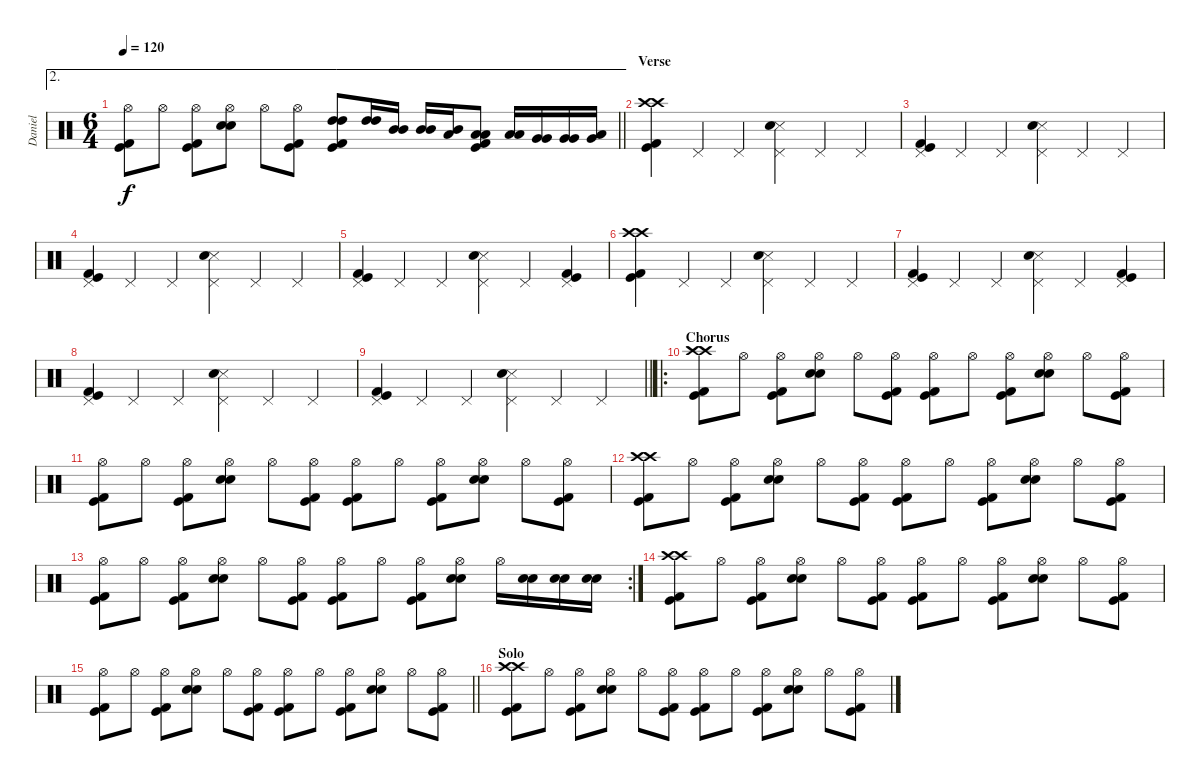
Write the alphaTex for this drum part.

\track ("Daniel" "Daniel") {instrument percussion}
\staff {score}
\articulation defaults
\ae 2
\ts (6 4)
\tempo 120
\clef neutral
\barLineRight lightlight
\ks c
("Hi-Hat (open)" "Kick (hit) 2" "Kick (hit)").8{dy f} "Hi-Hat (open)".8 ("Hi-Hat (open)" "Kick (hit) 2" "Kick (hit)").8 ("Hi-Hat (open)" "Snare (hit) 2" "Electric Snare (hit)").8 "Hi-Hat (open)".8 ("Hi-Hat (open)" "Kick (hit) 2" "Kick (hit)").8 ("High Tom (hit)" "High Tom (hit)" "Kick (hit) 2" "Kick (hit)").8 ("High Tom (hit)" "High Tom (hit)").16 ("Mid Tom (hit)" "Mid Tom (hit)").16 ("Mid Tom (hit)" "Mid Tom (hit)").16 ("Mid Tom (hit)" "Low Tom (hit)").16 ("Low Tom (hit)" "Low Tom (hit)" "Kick (hit) 2" "Kick (hit)").8 ("Low Tom (hit)" "Low Tom (hit)").16 ("Very Low Tom (hit)" "Very Low Tom (hit)").16 ("Very Low Tom (hit)" "Very Low Tom (hit)").16 ("Very Low Tom (hit)" "Low Floor Tom (hit)").16 |
\section ("" "Verse")
("Crash high (hit)" "Crash high (hit)" "Kick (hit) 2" "Kick (hit)").4 "Pedal Hi-Hat (hit)".4 "Pedal Hi-Hat (hit)".4 ("Pedal Hi-Hat (hit)" "Snare (side stick) 3" "Electric Snare (hit)").4 "Pedal Hi-Hat (hit)".4 "Pedal Hi-Hat (hit)".4 |
("Pedal Hi-Hat (hit)" "Kick (hit) 2" "Kick (hit)").4 "Pedal Hi-Hat (hit)".4 "Pedal Hi-Hat (hit)".4 ("Pedal Hi-Hat (hit)" "Snare (side stick) 3" "Electric Snare (hit)").4 "Pedal Hi-Hat (hit)".4 "Pedal Hi-Hat (hit)".4 |
("Pedal Hi-Hat (hit)" "Kick (hit) 2" "Kick (hit)").4 "Pedal Hi-Hat (hit)".4 "Pedal Hi-Hat (hit)".4 ("Pedal Hi-Hat (hit)" "Snare (side stick) 3" "Electric Snare (hit)").4 "Pedal Hi-Hat (hit)".4 "Pedal Hi-Hat (hit)".4 |
("Pedal Hi-Hat (hit)" "Kick (hit) 2" "Kick (hit)").4 "Pedal Hi-Hat (hit)".4 "Pedal Hi-Hat (hit)".4 ("Pedal Hi-Hat (hit)" "Snare (side stick) 3" "Electric Snare (hit)").4 "Pedal Hi-Hat (hit)".4 ("Pedal Hi-Hat (hit)" "Kick (hit) 2" "Kick (hit)").4 |
("Crash high (hit)" "Crash high (hit)" "Kick (hit) 2" "Kick (hit)").4 "Pedal Hi-Hat (hit)".4 "Pedal Hi-Hat (hit)".4 ("Pedal Hi-Hat (hit)" "Snare (side stick) 3" "Electric Snare (hit)").4 "Pedal Hi-Hat (hit)".4 "Pedal Hi-Hat (hit)".4 |
("Pedal Hi-Hat (hit)" "Kick (hit) 2" "Kick (hit)").4 "Pedal Hi-Hat (hit)".4 "Pedal Hi-Hat (hit)".4 ("Pedal Hi-Hat (hit)" "Snare (side stick) 3" "Electric Snare (hit)").4 "Pedal Hi-Hat (hit)".4 ("Pedal Hi-Hat (hit)" "Kick (hit) 2" "Kick (hit)").4 |
("Pedal Hi-Hat (hit)" "Kick (hit) 2" "Kick (hit)").4 "Pedal Hi-Hat (hit)".4 "Pedal Hi-Hat (hit)".4 ("Pedal Hi-Hat (hit)" "Snare (side stick) 3" "Electric Snare (hit)").4 "Pedal Hi-Hat (hit)".4 "Pedal Hi-Hat (hit)".4 |
\barLineRight lightlight
("Pedal Hi-Hat (hit)" "Kick (hit) 2" "Kick (hit)").4 "Pedal Hi-Hat (hit)".4 "Pedal Hi-Hat (hit)".4 ("Pedal Hi-Hat (hit)" "Snare (side stick) 3" "Electric Snare (hit)").4 "Pedal Hi-Hat (hit)".4 "Pedal Hi-Hat (hit)".4 |
\ro
\section ("" "Chorus")
("Crash high (hit)" "Crash high (hit)" "Kick (hit) 2" "Kick (hit)").8 "Hi-Hat (open)".8 ("Hi-Hat (open)" "Kick (hit) 2" "Kick (hit)").8 ("Hi-Hat (open)" "Snare (hit) 2" "Electric Snare (hit)").8 "Hi-Hat (open)".8 ("Hi-Hat (open)" "Kick (hit) 2" "Kick (hit)").8 ("Hi-Hat (open)" "Kick (hit) 2" "Kick (hit)").8 "Hi-Hat (open)".8 ("Hi-Hat (open)" "Kick (hit) 2" "Kick (hit)").8 ("Hi-Hat (open)" "Snare (hit) 2" "Electric Snare (hit)").8 "Hi-Hat (open)".8 ("Hi-Hat (open)" "Kick (hit) 2" "Kick (hit)").8 |
("Hi-Hat (open)" "Kick (hit) 2" "Kick (hit)").8 "Hi-Hat (open)".8 ("Hi-Hat (open)" "Kick (hit) 2" "Kick (hit)").8 ("Hi-Hat (open)" "Snare (hit) 2" "Electric Snare (hit)").8 "Hi-Hat (open)".8 ("Hi-Hat (open)" "Kick (hit) 2" "Kick (hit)").8 ("Hi-Hat (open)" "Kick (hit) 2" "Kick (hit)").8 "Hi-Hat (open)".8 ("Hi-Hat (open)" "Kick (hit) 2" "Kick (hit)").8 ("Hi-Hat (open)" "Snare (hit) 2" "Electric Snare (hit)").8 "Hi-Hat (open)".8 ("Hi-Hat (open)" "Kick (hit) 2" "Kick (hit)").8 |
("Crash high (hit)" "Crash high (hit)" "Kick (hit) 2" "Kick (hit)").8 "Hi-Hat (open)".8 ("Hi-Hat (open)" "Kick (hit) 2" "Kick (hit)").8 ("Hi-Hat (open)" "Snare (hit) 2" "Electric Snare (hit)").8 "Hi-Hat (open)".8 ("Hi-Hat (open)" "Kick (hit) 2" "Kick (hit)").8 ("Hi-Hat (open)" "Kick (hit) 2" "Kick (hit)").8 "Hi-Hat (open)".8 ("Hi-Hat (open)" "Kick (hit) 2" "Kick (hit)").8 ("Hi-Hat (open)" "Snare (hit) 2" "Electric Snare (hit)").8 "Hi-Hat (open)".8 ("Hi-Hat (open)" "Kick (hit) 2" "Kick (hit)").8 |
\rc 2
("Hi-Hat (open)" "Kick (hit) 2" "Kick (hit)").8 "Hi-Hat (open)".8 ("Hi-Hat (open)" "Kick (hit) 2" "Kick (hit)").8 ("Hi-Hat (open)" "Snare (hit) 2" "Electric Snare (hit)").8 "Hi-Hat (open)".8 ("Hi-Hat (open)" "Kick (hit) 2" "Kick (hit)").8 ("Hi-Hat (open)" "Kick (hit) 2" "Kick (hit)").8 "Hi-Hat (open)".8 ("Hi-Hat (open)" "Kick (hit) 2" "Kick (hit)").8 ("Hi-Hat (open)" "Snare (hit) 2" "Electric Snare (hit)").8 "Hi-Hat (open)".16 ("Snare (hit) 2" "Electric Snare (hit)").16 ("Snare (hit) 2" "Electric Snare (hit)").16 ("Snare (hit) 2" "Electric Snare (hit)").16 |
("Crash high (hit)" "Crash high (hit)" "Kick (hit) 2" "Kick (hit)").8 "Hi-Hat (open)".8 ("Hi-Hat (open)" "Kick (hit) 2" "Kick (hit)").8 ("Hi-Hat (open)" "Snare (hit) 2" "Electric Snare (hit)").8 "Hi-Hat (open)".8 ("Hi-Hat (open)" "Kick (hit) 2" "Kick (hit)").8 ("Hi-Hat (open)" "Kick (hit) 2" "Kick (hit)").8 "Hi-Hat (open)".8 ("Hi-Hat (open)" "Kick (hit) 2" "Kick (hit)").8 ("Hi-Hat (open)" "Snare (hit) 2" "Electric Snare (hit)").8 "Hi-Hat (open)".8 ("Hi-Hat (open)" "Kick (hit) 2" "Kick (hit)").8 |
\barLineRight lightlight
("Hi-Hat (open)" "Kick (hit) 2" "Kick (hit)").8 "Hi-Hat (open)".8 ("Hi-Hat (open)" "Kick (hit) 2" "Kick (hit)").8 ("Hi-Hat (open)" "Snare (hit) 2" "Electric Snare (hit)").8 "Hi-Hat (open)".8 ("Hi-Hat (open)" "Kick (hit) 2" "Kick (hit)").8 ("Hi-Hat (open)" "Kick (hit) 2" "Kick (hit)").8 "Hi-Hat (open)".8 ("Hi-Hat (open)" "Kick (hit) 2" "Kick (hit)").8 ("Hi-Hat (open)" "Snare (hit) 2" "Electric Snare (hit)").8 "Hi-Hat (open)".8 ("Hi-Hat (open)" "Kick (hit) 2" "Kick (hit)").8 |
\section ("" "Solo")
("Crash high (hit)" "Crash high (hit)" "Kick (hit) 2" "Kick (hit)").8 "Hi-Hat (open)".8 ("Hi-Hat (open)" "Kick (hit) 2" "Kick (hit)").8 ("Hi-Hat (open)" "Snare (hit) 2" "Electric Snare (hit)").8 "Hi-Hat (open)".8 ("Hi-Hat (open)" "Kick (hit) 2" "Kick (hit)").8 ("Hi-Hat (open)" "Kick (hit) 2" "Kick (hit)").8 "Hi-Hat (open)".8 ("Hi-Hat (open)" "Kick (hit) 2" "Kick (hit)").8 ("Hi-Hat (open)" "Snare (hit) 2" "Electric Snare (hit)").8 "Hi-Hat (open)".8 ("Hi-Hat (open)" "Kick (hit) 2" "Kick (hit)").8
